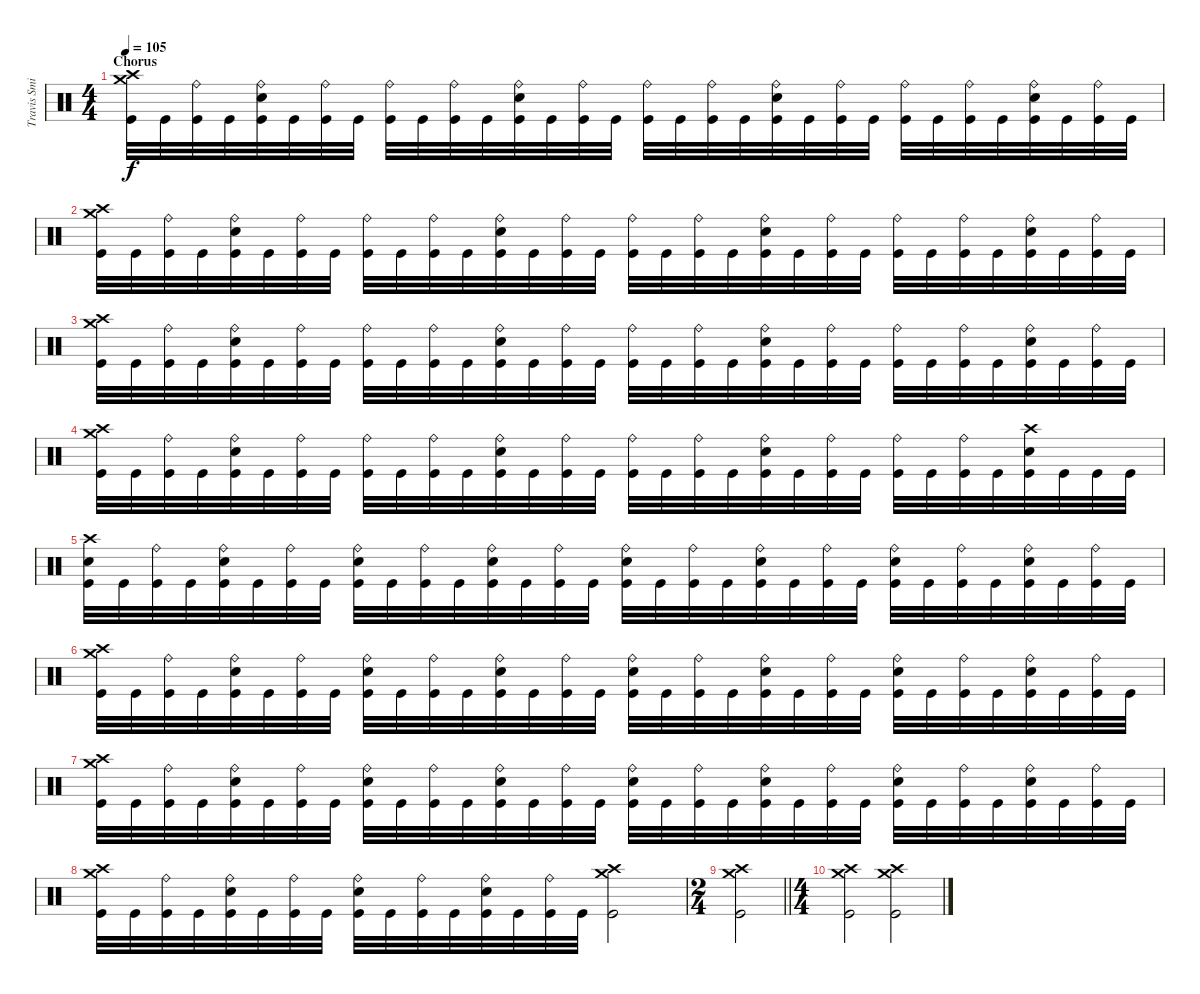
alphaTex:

\track ("Travis Smith" "Travis Smi") {instrument percussion}
\staff {score}
\articulation defaults
\ts (4 4)
\section ("" "Chorus")
\tempo 105
\clef neutral
\ks c
("Crash high (hit)" "Crash medium (hit)" "Kick (hit)").32{dy f} "Kick (hit)".32 ("Ride (bell)" "Kick (hit)").32 "Kick (hit)".32 ("Ride (bell)" "Electric Snare (hit)" "Kick (hit)").32 "Kick (hit)".32 ("Ride (bell)" "Kick (hit)").32 "Kick (hit)".32 ("Ride (bell)" "Kick (hit)").32 "Kick (hit)".32 ("Ride (bell)" "Kick (hit)").32 "Kick (hit)".32 ("Ride (bell)" "Electric Snare (hit)" "Kick (hit)").32 "Kick (hit)".32 ("Ride (bell)" "Kick (hit)").32 "Kick (hit)".32 ("Ride (bell)" "Kick (hit)").32 "Kick (hit)".32 ("Ride (bell)" "Kick (hit)").32 "Kick (hit)".32 ("Ride (bell)" "Electric Snare (hit)" "Kick (hit)").32 "Kick (hit)".32 ("Ride (bell)" "Kick (hit)").32 "Kick (hit)".32 ("Ride (bell)" "Kick (hit)").32 "Kick (hit)".32 ("Ride (bell)" "Kick (hit)").32 "Kick (hit)".32 ("Ride (bell)" "Electric Snare (hit)" "Kick (hit)").32 "Kick (hit)".32 ("Ride (bell)" "Kick (hit)").32 "Kick (hit)".32 |
("Crash high (hit)" "Crash medium (hit)" "Kick (hit)").32 "Kick (hit)".32 ("Ride (bell)" "Kick (hit)").32 "Kick (hit)".32 ("Ride (bell)" "Electric Snare (hit)" "Kick (hit)").32 "Kick (hit)".32 ("Ride (bell)" "Kick (hit)").32 "Kick (hit)".32 ("Ride (bell)" "Kick (hit)").32 "Kick (hit)".32 ("Ride (bell)" "Kick (hit)").32 "Kick (hit)".32 ("Ride (bell)" "Electric Snare (hit)" "Kick (hit)").32 "Kick (hit)".32 ("Ride (bell)" "Kick (hit)").32 "Kick (hit)".32 ("Ride (bell)" "Kick (hit)").32 "Kick (hit)".32 ("Ride (bell)" "Kick (hit)").32 "Kick (hit)".32 ("Ride (bell)" "Electric Snare (hit)" "Kick (hit)").32 "Kick (hit)".32 ("Ride (bell)" "Kick (hit)").32 "Kick (hit)".32 ("Ride (bell)" "Kick (hit)").32 "Kick (hit)".32 ("Ride (bell)" "Kick (hit)").32 "Kick (hit)".32 ("Ride (bell)" "Electric Snare (hit)" "Kick (hit)").32 "Kick (hit)".32 ("Ride (bell)" "Kick (hit)").32 "Kick (hit)".32 |
("Crash high (hit)" "Crash medium (hit)" "Kick (hit)").32 "Kick (hit)".32 ("Ride (bell)" "Kick (hit)").32 "Kick (hit)".32 ("Ride (bell)" "Electric Snare (hit)" "Kick (hit)").32 "Kick (hit)".32 ("Ride (bell)" "Kick (hit)").32 "Kick (hit)".32 ("Ride (bell)" "Kick (hit)").32 "Kick (hit)".32 ("Ride (bell)" "Kick (hit)").32 "Kick (hit)".32 ("Ride (bell)" "Electric Snare (hit)" "Kick (hit)").32 "Kick (hit)".32 ("Ride (bell)" "Kick (hit)").32 "Kick (hit)".32 ("Ride (bell)" "Kick (hit)").32 "Kick (hit)".32 ("Ride (bell)" "Kick (hit)").32 "Kick (hit)".32 ("Ride (bell)" "Electric Snare (hit)" "Kick (hit)").32 "Kick (hit)".32 ("Ride (bell)" "Kick (hit)").32 "Kick (hit)".32 ("Ride (bell)" "Kick (hit)").32 "Kick (hit)".32 ("Ride (bell)" "Kick (hit)").32 "Kick (hit)".32 ("Ride (bell)" "Electric Snare (hit)" "Kick (hit)").32 "Kick (hit)".32 ("Ride (bell)" "Kick (hit)").32 "Kick (hit)".32 |
("Crash high (hit)" "Crash medium (hit)" "Kick (hit)").32 "Kick (hit)".32 ("Ride (bell)" "Kick (hit)").32 "Kick (hit)".32 ("Ride (bell)" "Electric Snare (hit)" "Kick (hit)").32 "Kick (hit)".32 ("Ride (bell)" "Kick (hit)").32 "Kick (hit)".32 ("Ride (bell)" "Kick (hit)").32 "Kick (hit)".32 ("Ride (bell)" "Kick (hit)").32 "Kick (hit)".32 ("Ride (bell)" "Electric Snare (hit)" "Kick (hit)").32 "Kick (hit)".32 ("Ride (bell)" "Kick (hit)").32 "Kick (hit)".32 ("Ride (bell)" "Kick (hit)").32 "Kick (hit)".32 ("Ride (bell)" "Kick (hit)").32 "Kick (hit)".32 ("Ride (bell)" "Electric Snare (hit)" "Kick (hit)").32 "Kick (hit)".32 ("Ride (bell)" "Kick (hit)").32 "Kick (hit)".32 ("Ride (bell)" "Kick (hit)").32 "Kick (hit)".32 ("Ride (bell)" "Kick (hit)").32 "Kick (hit)".32 ("Crash high (hit)" "Electric Snare (hit)" "Kick (hit)").32 "Kick (hit)".32 "Kick (hit)".32 "Kick (hit)".32 |
("Crash high (hit)" "Electric Snare (hit)" "Kick (hit)").32 "Kick (hit)".32 ("Ride (bell)" "Kick (hit)").32 "Kick (hit)".32 ("Ride (bell)" "Electric Snare (hit)" "Kick (hit)").32 "Kick (hit)".32 ("Ride (bell)" "Kick (hit)").32 "Kick (hit)".32 ("Ride (bell)" "Electric Snare (hit)" "Kick (hit)").32 "Kick (hit)".32 ("Ride (bell)" "Kick (hit)").32 "Kick (hit)".32 ("Ride (bell)" "Electric Snare (hit)" "Kick (hit)").32 "Kick (hit)".32 ("Ride (bell)" "Kick (hit)").32 "Kick (hit)".32 ("Ride (bell)" "Electric Snare (hit)" "Kick (hit)").32 "Kick (hit)".32 ("Ride (bell)" "Kick (hit)").32 "Kick (hit)".32 ("Ride (bell)" "Electric Snare (hit)" "Kick (hit)").32 "Kick (hit)".32 ("Ride (bell)" "Kick (hit)").32 "Kick (hit)".32 ("Ride (bell)" "Electric Snare (hit)" "Kick (hit)").32 "Kick (hit)".32 ("Ride (bell)" "Kick (hit)").32 "Kick (hit)".32 ("Ride (bell)" "Electric Snare (hit)" "Kick (hit)").32 "Kick (hit)".32 ("Ride (bell)" "Kick (hit)").32 "Kick (hit)".32 |
("Crash high (hit)" "Crash medium (hit)" "Kick (hit)").32 "Kick (hit)".32 ("Ride (bell)" "Kick (hit)").32 "Kick (hit)".32 ("Ride (bell)" "Electric Snare (hit)" "Kick (hit)").32 "Kick (hit)".32 ("Ride (bell)" "Kick (hit)").32 "Kick (hit)".32 ("Ride (bell)" "Electric Snare (hit)" "Kick (hit)").32 "Kick (hit)".32 ("Ride (bell)" "Kick (hit)").32 "Kick (hit)".32 ("Ride (bell)" "Electric Snare (hit)" "Kick (hit)").32 "Kick (hit)".32 ("Ride (bell)" "Kick (hit)").32 "Kick (hit)".32 ("Ride (bell)" "Electric Snare (hit)" "Kick (hit)").32 "Kick (hit)".32 ("Ride (bell)" "Kick (hit)").32 "Kick (hit)".32 ("Ride (bell)" "Electric Snare (hit)" "Kick (hit)").32 "Kick (hit)".32 ("Ride (bell)" "Kick (hit)").32 "Kick (hit)".32 ("Ride (bell)" "Electric Snare (hit)" "Kick (hit)").32 "Kick (hit)".32 ("Ride (bell)" "Kick (hit)").32 "Kick (hit)".32 ("Ride (bell)" "Electric Snare (hit)" "Kick (hit)").32 "Kick (hit)".32 ("Ride (bell)" "Kick (hit)").32 "Kick (hit)".32 |
("Crash high (hit)" "Crash medium (hit)" "Kick (hit)").32 "Kick (hit)".32 ("Ride (bell)" "Kick (hit)").32 "Kick (hit)".32 ("Ride (bell)" "Electric Snare (hit)" "Kick (hit)").32 "Kick (hit)".32 ("Ride (bell)" "Kick (hit)").32 "Kick (hit)".32 ("Ride (bell)" "Electric Snare (hit)" "Kick (hit)").32 "Kick (hit)".32 ("Ride (bell)" "Kick (hit)").32 "Kick (hit)".32 ("Ride (bell)" "Electric Snare (hit)" "Kick (hit)").32 "Kick (hit)".32 ("Ride (bell)" "Kick (hit)").32 "Kick (hit)".32 ("Ride (bell)" "Electric Snare (hit)" "Kick (hit)").32 "Kick (hit)".32 ("Ride (bell)" "Kick (hit)").32 "Kick (hit)".32 ("Ride (bell)" "Electric Snare (hit)" "Kick (hit)").32 "Kick (hit)".32 ("Ride (bell)" "Kick (hit)").32 "Kick (hit)".32 ("Ride (bell)" "Electric Snare (hit)" "Kick (hit)").32 "Kick (hit)".32 ("Ride (bell)" "Kick (hit)").32 "Kick (hit)".32 ("Ride (bell)" "Electric Snare (hit)" "Kick (hit)").32 "Kick (hit)".32 ("Ride (bell)" "Kick (hit)").32 "Kick (hit)".32 |
("Crash high (hit)" "Crash medium (hit)" "Kick (hit)").32 "Kick (hit)".32 ("Ride (bell)" "Kick (hit)").32 "Kick (hit)".32 ("Ride (bell)" "Electric Snare (hit)" "Kick (hit)").32 "Kick (hit)".32 ("Ride (bell)" "Kick (hit)").32 "Kick (hit)".32 ("Ride (bell)" "Electric Snare (hit)" "Kick (hit)").32 "Kick (hit)".32 ("Ride (bell)" "Kick (hit)").32 "Kick (hit)".32 ("Ride (bell)" "Electric Snare (hit)" "Kick (hit)").32 "Kick (hit)".32 ("Ride (bell)" "Kick (hit)").32 "Kick (hit)".32 ("Crash high (hit)" "Crash medium (hit)" "Kick (hit)").2 |
\ts (2 4)
\barLineRight lightlight
("Crash high (hit)" "Crash medium (hit)" "Kick (hit)").2 |
\ts (4 4)
("Crash medium (hit)" "Crash high (hit)" "Kick (hit)").2 ("Crash medium (hit)" "Crash high (hit)" "Kick (hit)").2
